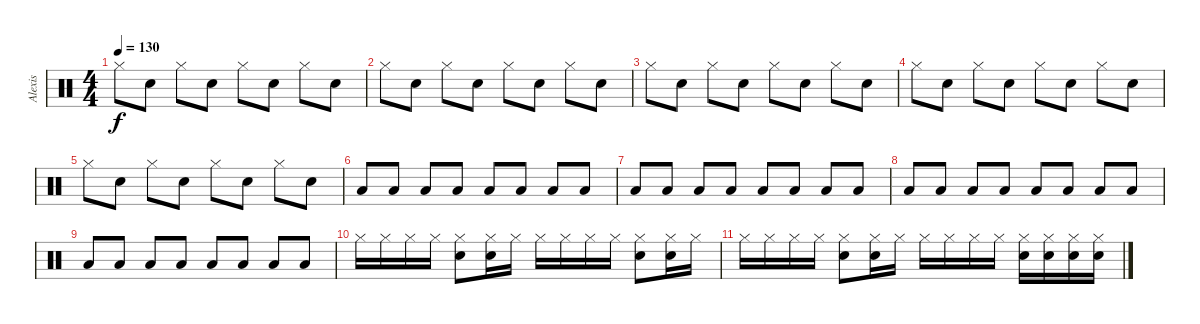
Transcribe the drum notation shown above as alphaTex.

\track ("Alexis" "Alexis") {instrument percussion}
\staff {score}
\articulation defaults
\ts (4 4)
\tempo 130
\clef neutral
\ks c "Hi-Hat (closed)".8{dy f} "Snare (hit) 2".8 "Hi-Hat (closed)".8 "Snare (hit) 2".8 "Hi-Hat (closed)".8 "Snare (hit) 2".8 "Hi-Hat (closed)".8 "Snare (hit) 2".8
|
"Hi-Hat (closed)".8 "Snare (hit) 2".8 "Hi-Hat (closed)".8 "Snare (hit) 2".8 "Hi-Hat (closed)".8 "Snare (hit) 2".8 "Hi-Hat (closed)".8 "Snare (hit) 2".8 |
"Hi-Hat (closed)".8 "Snare (hit) 2".8 "Hi-Hat (closed)".8 "Snare (hit) 2".8 "Hi-Hat (closed)".8 "Snare (hit) 2".8 "Hi-Hat (closed)".8 "Snare (hit) 2".8 |
"Hi-Hat (closed)".8 "Snare (hit) 2".8 "Hi-Hat (closed)".8 "Snare (hit) 2".8 "Hi-Hat (closed)".8 "Snare (hit) 2".8 "Hi-Hat (closed)".8 "Snare (hit) 2".8 |
"Hi-Hat (closed)".8 "Snare (hit) 2".8 "Hi-Hat (closed)".8 "Snare (hit) 2".8 "Hi-Hat (closed)".8 "Snare (hit) 2".8 "Hi-Hat (closed)".8 "Snare (hit) 2".8 |
"Low Tom (hit)".8 "Low Tom (hit)".8 "Low Tom (hit)".8 "Low Tom (hit)".8 "Low Tom (hit)".8 "Low Tom (hit)".8 "Low Tom (hit)".8 "Low Tom (hit)".8 |
"Low Tom (hit)".8 "Low Tom (hit)".8 "Low Tom (hit)".8 "Low Tom (hit)".8 "Low Tom (hit)".8 "Low Tom (hit)".8 "Low Tom (hit)".8 "Low Tom (hit)".8 |
"Low Tom (hit)".8 "Low Tom (hit)".8 "Low Tom (hit)".8 "Low Tom (hit)".8 "Low Tom (hit)".8 "Low Tom (hit)".8 "Low Tom (hit)".8 "Low Tom (hit)".8 |
"Low Tom (hit)".8 "Low Tom (hit)".8 "Low Tom (hit)".8 "Low Tom (hit)".8 "Low Tom (hit)".8 "Low Tom (hit)".8 "Low Tom (hit)".8 "Low Tom (hit)".8 |
"Hi-Hat (closed)".16 "Hi-Hat (closed)".16 "Hi-Hat (closed)".16 "Hi-Hat (closed)".16 ("Hi-Hat (closed)" "Snare (hit) 2").8 ("Hi-Hat (closed)" "Snare (hit) 2").16 "Hi-Hat (closed)".16 "Hi-Hat (closed)".16 "Hi-Hat (closed)".16 "Hi-Hat (closed)".16 "Hi-Hat (closed)".16 ("Hi-Hat (closed)" "Snare (hit) 2").8 ("Hi-Hat (closed)" "Snare (hit) 2").16 "Hi-Hat (closed)".16 |
"Hi-Hat (closed)".16 "Hi-Hat (closed)".16 "Hi-Hat (closed)".16 "Hi-Hat (closed)".16 ("Hi-Hat (closed)" "Snare (hit) 2").8 ("Hi-Hat (closed)" "Snare (hit) 2").16 "Hi-Hat (closed)".16 "Hi-Hat (closed)".16 "Hi-Hat (closed)".16 "Hi-Hat (closed)".16 "Hi-Hat (closed)".16 ("Hi-Hat (closed)" "Snare (hit) 2").16 ("Hi-Hat (closed)" "Snare (hit) 2").16 ("Hi-Hat (closed)" "Snare (hit) 2").16 ("Hi-Hat (closed)" "Snare (hit) 2").16
